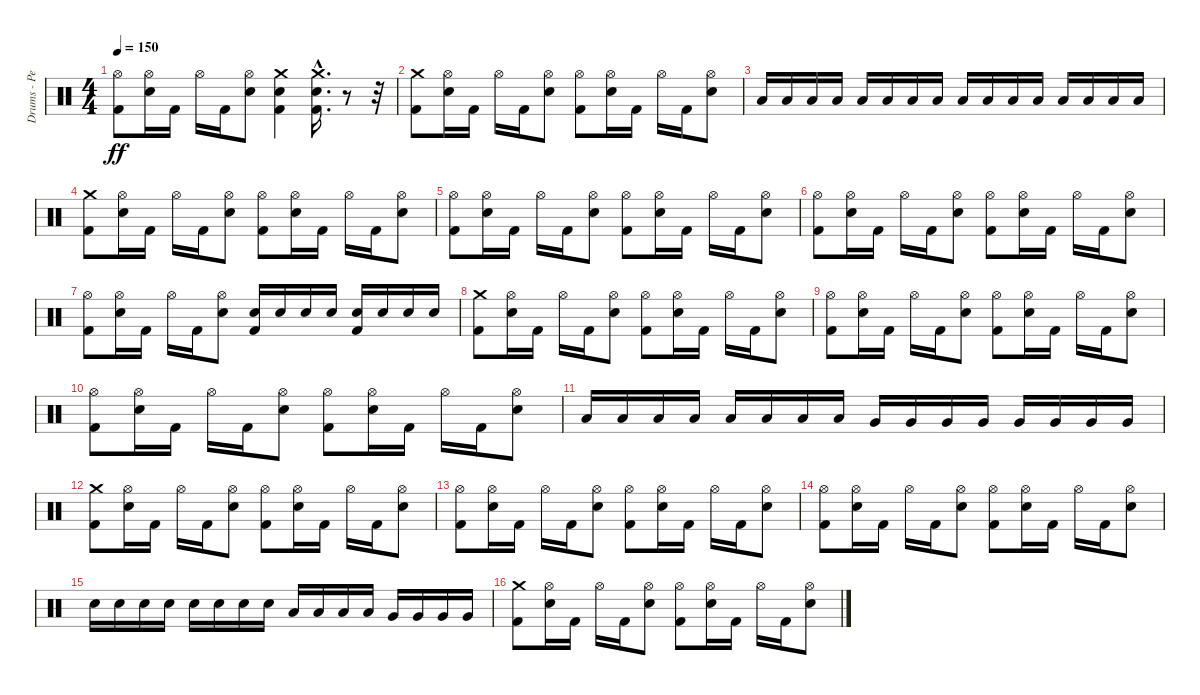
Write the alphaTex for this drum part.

\track ("Drums - Pete Finestone" "Drums - Pe") {instrument percussion}
\staff {score}
\articulation defaults
\ts (4 4)
\tempo 150
\clef neutral
\ks c
("Kick (hit) 2" "Hi-Hat (open)").8{dy ff} ("Electric Snare (hit)" "Hi-Hat (open)").16 "Kick (hit) 2".16 "Hi-Hat (open)".16 "Kick (hit) 2".16 ("Electric Snare (hit)" "Hi-Hat (open)").8 ("Kick (hit) 2" "Electric Snare (hit)" "Crash medium (hit)").4 ("Kick (hit) 2" "Electric Snare (hit)" "Crash medium (hit)"{hac}).16{d} r.8 r.32 |
("Kick (hit) 2" "Crash medium (hit)").8 ("Electric Snare (hit)" "Hi-Hat (open)").16 "Kick (hit) 2".16 "Hi-Hat (open)".16 "Kick (hit) 2".16 ("Electric Snare (hit)" "Hi-Hat (open)").8 ("Kick (hit) 2" "Hi-Hat (open)").8 ("Electric Snare (hit)" "Hi-Hat (open)").16 "Kick (hit) 2".16 "Hi-Hat (open)".16 "Kick (hit) 2".16 ("Electric Snare (hit)" "Hi-Hat (open)").8 |
"Low Tom (hit)".16 "Low Tom (hit)".16 "Low Tom (hit)".16 "Low Tom (hit)".16 "Low Tom (hit)".16 "Low Tom (hit)".16 "Low Tom (hit)".16 "Low Tom (hit)".16 "Low Tom (hit)".16 "Low Tom (hit)".16 "Low Tom (hit)".16 "Low Tom (hit)".16 "Low Tom (hit)".16 "Low Tom (hit)".16 "Low Tom (hit)".16 "Low Tom (hit)".16 |
("Kick (hit) 2" "Crash medium (hit)").8 ("Electric Snare (hit)" "Hi-Hat (open)").16 "Kick (hit) 2".16 "Hi-Hat (open)".16 "Kick (hit) 2".16 ("Electric Snare (hit)" "Hi-Hat (open)").8 ("Kick (hit) 2" "Hi-Hat (open)").8 ("Electric Snare (hit)" "Hi-Hat (open)").16 "Kick (hit) 2".16 "Hi-Hat (open)".16 "Kick (hit) 2".16 ("Electric Snare (hit)" "Hi-Hat (open)").8 |
("Kick (hit) 2" "Hi-Hat (open)").8 ("Electric Snare (hit)" "Hi-Hat (open)").16 "Kick (hit) 2".16 "Hi-Hat (open)".16 "Kick (hit) 2".16 ("Electric Snare (hit)" "Hi-Hat (open)").8 ("Kick (hit) 2" "Hi-Hat (open)").8 ("Electric Snare (hit)" "Hi-Hat (open)").16 "Kick (hit) 2".16 "Hi-Hat (open)".16 "Kick (hit) 2".16 ("Electric Snare (hit)" "Hi-Hat (open)").8 |
("Kick (hit) 2" "Hi-Hat (open)").8 ("Electric Snare (hit)" "Hi-Hat (open)").16 "Kick (hit) 2".16 "Hi-Hat (open)".16 "Kick (hit) 2".16 ("Electric Snare (hit)" "Hi-Hat (open)").8 ("Kick (hit) 2" "Hi-Hat (open)").8 ("Electric Snare (hit)" "Hi-Hat (open)").16 "Kick (hit) 2".16 "Hi-Hat (open)".16 "Kick (hit) 2".16 ("Electric Snare (hit)" "Hi-Hat (open)").8 |
("Kick (hit) 2" "Hi-Hat (open)").8 ("Electric Snare (hit)" "Hi-Hat (open)").16 "Kick (hit) 2".16 "Hi-Hat (open)".16 "Kick (hit) 2".16 ("Electric Snare (hit)" "Hi-Hat (open)").8 ("Electric Snare (hit)" "Kick (hit) 2").16 "Electric Snare (hit)".16 "Electric Snare (hit)".16 "Electric Snare (hit)".16 ("Electric Snare (hit)" "Kick (hit) 2").16 "Electric Snare (hit)".16 "Electric Snare (hit)".16 "Electric Snare (hit)".16 |
("Kick (hit) 2" "Crash medium (hit)").8 ("Electric Snare (hit)" "Hi-Hat (open)").16 "Kick (hit) 2".16 "Hi-Hat (open)".16 "Kick (hit) 2".16 ("Electric Snare (hit)" "Hi-Hat (open)").8 ("Kick (hit) 2" "Hi-Hat (open)").8 ("Electric Snare (hit)" "Hi-Hat (open)").16 "Kick (hit) 2".16 "Hi-Hat (open)".16 "Kick (hit) 2".16 ("Electric Snare (hit)" "Hi-Hat (open)").8 |
("Kick (hit) 2" "Hi-Hat (open)").8 ("Electric Snare (hit)" "Hi-Hat (open)").16 "Kick (hit) 2".16 "Hi-Hat (open)".16 "Kick (hit) 2".16 ("Electric Snare (hit)" "Hi-Hat (open)").8 ("Kick (hit) 2" "Hi-Hat (open)").8 ("Electric Snare (hit)" "Hi-Hat (open)").16 "Kick (hit) 2".16 "Hi-Hat (open)".16 "Kick (hit) 2".16 ("Electric Snare (hit)" "Hi-Hat (open)").8 |
("Kick (hit) 2" "Hi-Hat (open)").8 ("Electric Snare (hit)" "Hi-Hat (open)").16 "Kick (hit) 2".16 "Hi-Hat (open)".16 "Kick (hit) 2".16 ("Electric Snare (hit)" "Hi-Hat (open)").8 ("Kick (hit) 2" "Hi-Hat (open)").8 ("Electric Snare (hit)" "Hi-Hat (open)").16 "Kick (hit) 2".16 "Hi-Hat (open)".16 "Kick (hit) 2".16 ("Electric Snare (hit)" "Hi-Hat (open)").8 |
"Low Tom (hit)".16 "Low Tom (hit)".16 "Low Tom (hit)".16 "Low Tom (hit)".16 "Low Tom (hit)".16 "Low Tom (hit)".16 "Low Tom (hit)".16 "Low Tom (hit)".16 "Very Low Tom (hit)".16 "Very Low Tom (hit)".16 "Very Low Tom (hit)".16 "Very Low Tom (hit)".16 "Very Low Tom (hit)".16 "Very Low Tom (hit)".16 "Very Low Tom (hit)".16 "Very Low Tom (hit)".16 |
("Kick (hit) 2" "Crash medium (hit)").8 ("Electric Snare (hit)" "Hi-Hat (open)").16 "Kick (hit) 2".16 "Hi-Hat (open)".16 "Kick (hit) 2".16 ("Electric Snare (hit)" "Hi-Hat (open)").8 ("Kick (hit) 2" "Hi-Hat (open)").8 ("Electric Snare (hit)" "Hi-Hat (open)").16 "Kick (hit) 2".16 "Hi-Hat (open)".16 "Kick (hit) 2".16 ("Electric Snare (hit)" "Hi-Hat (open)").8 |
("Kick (hit) 2" "Hi-Hat (open)").8 ("Electric Snare (hit)" "Hi-Hat (open)").16 "Kick (hit) 2".16 "Hi-Hat (open)".16 "Kick (hit) 2".16 ("Electric Snare (hit)" "Hi-Hat (open)").8 ("Kick (hit) 2" "Hi-Hat (open)").8 ("Electric Snare (hit)" "Hi-Hat (open)").16 "Kick (hit) 2".16 "Hi-Hat (open)".16 "Kick (hit) 2".16 ("Electric Snare (hit)" "Hi-Hat (open)").8 |
("Kick (hit) 2" "Hi-Hat (open)").8 ("Electric Snare (hit)" "Hi-Hat (open)").16 "Kick (hit) 2".16 "Hi-Hat (open)".16 "Kick (hit) 2".16 ("Electric Snare (hit)" "Hi-Hat (open)").8 ("Kick (hit) 2" "Hi-Hat (open)").8 ("Electric Snare (hit)" "Hi-Hat (open)").16 "Kick (hit) 2".16 "Hi-Hat (open)".16 "Kick (hit) 2".16 ("Electric Snare (hit)" "Hi-Hat (open)").8 |
"Electric Snare (hit)".16 "Electric Snare (hit)".16 "Electric Snare (hit)".16 "Electric Snare (hit)".16 "Electric Snare (hit)".16 "Electric Snare (hit)".16 "Electric Snare (hit)".16 "Electric Snare (hit)".16 "Low Tom (hit)".16 "Low Tom (hit)".16 "Low Tom (hit)".16 "Low Tom (hit)".16 "Very Low Tom (hit)".16 "Very Low Tom (hit)".16 "Very Low Tom (hit)".16 "Very Low Tom (hit)".16 |
("Kick (hit) 2" "Crash medium (hit)").8 ("Electric Snare (hit)" "Hi-Hat (open)").16 "Kick (hit) 2".16 "Hi-Hat (open)".16 "Kick (hit) 2".16 ("Electric Snare (hit)" "Hi-Hat (open)").8 ("Kick (hit) 2" "Hi-Hat (open)").8 ("Electric Snare (hit)" "Hi-Hat (open)").16 "Kick (hit) 2".16 "Hi-Hat (open)".16 "Kick (hit) 2".16 ("Electric Snare (hit)" "Hi-Hat (open)").8
